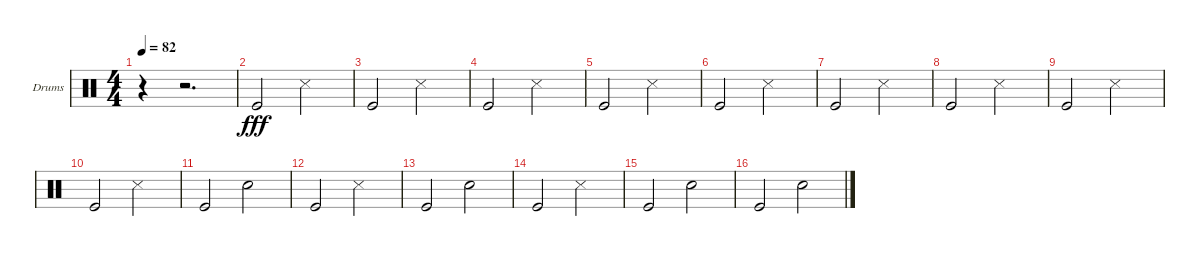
\bracketExtendMode groupsimilarinstruments
\firstSystemTrackNameOrientation horizontal
\otherSystemsTrackNameOrientation horizontal
\track ("Drumkit" "Drums") {instrument percussion}
\staff {score}
\articulation defaults
\ts (4 4)
\tempo 82
\clef neutral
\ks c
r.4{dy fff} r.2{d} |
"Kick (hit)".2 "Snare (side stick) 3".2 |
"Kick (hit)".2 "Snare (side stick) 3".2 |
"Kick (hit)".2 "Snare (side stick) 3".2 |
"Kick (hit)".2 "Snare (side stick) 3".2 |
"Kick (hit)".2 "Snare (side stick) 3".2 |
"Kick (hit)".2 "Snare (side stick) 3".2 |
"Kick (hit)".2 "Snare (side stick) 3".2 |
"Kick (hit)".2 "Snare (side stick) 3".2 |
"Kick (hit)".2 "Snare (side stick) 3".2 |
"Kick (hit)".2 "Snare (hit) 2".2 |
"Kick (hit)".2 "Snare (side stick) 3".2 |
"Kick (hit)".2 "Snare (hit) 2".2 |
"Kick (hit)".2 "Snare (side stick) 3".2 |
"Kick (hit)".2 "Snare (hit) 2".2 |
"Kick (hit)".2 "Snare (hit) 2".2
